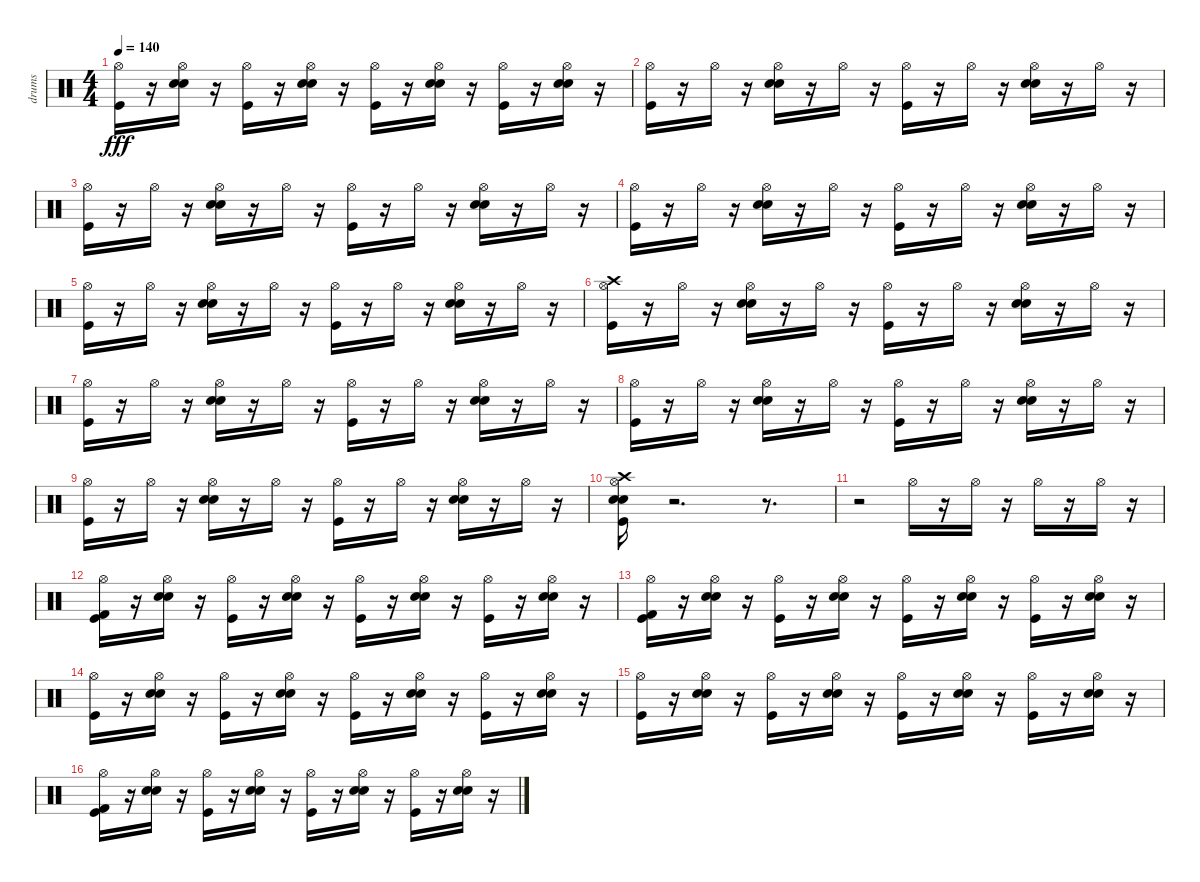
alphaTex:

\track ("drums" "drums") {instrument percussion}
\staff {score}
\articulation defaults
\ts (4 4)
\tempo 140
\clef neutral
\ks c
("Kick (hit)" "Hi-Hat (open)").16{dy fff} r.16 ("Snare (hit) 2" "Electric Snare (hit)" "Hi-Hat (open)").16 r.16 ("Hi-Hat (open)" "Kick (hit)").16 r.16 ("Hi-Hat (open)" "Snare (hit) 2" "Electric Snare (hit)").16 r.16 ("Hi-Hat (open)" "Kick (hit)").16 r.16 ("Hi-Hat (open)" "Snare (hit) 2" "Electric Snare (hit)").16 r.16 ("Hi-Hat (open)" "Kick (hit)").16 r.16 ("Hi-Hat (open)" "Snare (hit) 2" "Electric Snare (hit)").16 r.16 |
("Kick (hit)" "Hi-Hat (open)").16 r.16 "Hi-Hat (open)".16 r.16 ("Snare (hit) 2" "Electric Snare (hit)" "Hi-Hat (open)").16 r.16 "Hi-Hat (open)".16 r.16 ("Kick (hit)" "Hi-Hat (open)").16 r.16 "Hi-Hat (open)".16 r.16 ("Snare (hit) 2" "Electric Snare (hit)" "Hi-Hat (open)").16 r.16 "Hi-Hat (open)".16 r.16 |
("Hi-Hat (open)" "Kick (hit)").16 r.16 "Hi-Hat (open)".16 r.16 ("Snare (hit) 2" "Electric Snare (hit)" "Hi-Hat (open)").16 r.16 "Hi-Hat (open)".16 r.16 ("Kick (hit)" "Hi-Hat (open)").16 r.16 "Hi-Hat (open)".16 r.16 ("Snare (hit) 2" "Electric Snare (hit)" "Hi-Hat (open)").16 r.16 "Hi-Hat (open)".16 r.16 |
("Hi-Hat (open)" "Kick (hit)").16 r.16 "Hi-Hat (open)".16 r.16 ("Snare (hit) 2" "Electric Snare (hit)" "Hi-Hat (open)").16 r.16 "Hi-Hat (open)".16 r.16 ("Kick (hit)" "Hi-Hat (open)").16 r.16 "Hi-Hat (open)".16 r.16 ("Snare (hit) 2" "Electric Snare (hit)" "Hi-Hat (open)").16 r.16 "Hi-Hat (open)".16 r.16 |
("Hi-Hat (open)" "Kick (hit)").16 r.16 "Hi-Hat (open)".16 r.16 ("Snare (hit) 2" "Electric Snare (hit)" "Hi-Hat (open)").16 r.16 "Hi-Hat (open)".16 r.16 ("Kick (hit)" "Hi-Hat (open)").16 r.16 "Hi-Hat (open)".16 r.16 ("Snare (hit) 2" "Electric Snare (hit)" "Hi-Hat (open)").16 r.16 "Hi-Hat (open)".16 r.16 |
("Crash high (hit)" "Hi-Hat (open)" "Kick (hit)").16 r.16 "Hi-Hat (open)".16 r.16 ("Snare (hit) 2" "Electric Snare (hit)" "Hi-Hat (open)").16 r.16 "Hi-Hat (open)".16 r.16 ("Kick (hit)" "Hi-Hat (open)").16 r.16 "Hi-Hat (open)".16 r.16 ("Snare (hit) 2" "Electric Snare (hit)" "Hi-Hat (open)").16 r.16 "Hi-Hat (open)".16 r.16 |
("Hi-Hat (open)" "Kick (hit)").16 r.16 "Hi-Hat (open)".16 r.16 ("Snare (hit) 2" "Electric Snare (hit)" "Hi-Hat (open)").16 r.16 "Hi-Hat (open)".16 r.16 ("Kick (hit)" "Hi-Hat (open)").16 r.16 "Hi-Hat (open)".16 r.16 ("Snare (hit) 2" "Electric Snare (hit)" "Hi-Hat (open)").16 r.16 "Hi-Hat (open)".16 r.16 |
("Hi-Hat (open)" "Kick (hit)").16 r.16 "Hi-Hat (open)".16 r.16 ("Snare (hit) 2" "Electric Snare (hit)" "Hi-Hat (open)").16 r.16 "Hi-Hat (open)".16 r.16 ("Kick (hit)" "Hi-Hat (open)").16 r.16 "Hi-Hat (open)".16 r.16 ("Snare (hit) 2" "Electric Snare (hit)" "Hi-Hat (open)").16 r.16 "Hi-Hat (open)".16 r.16 |
("Kick (hit)" "Hi-Hat (open)").16 r.16 "Hi-Hat (open)".16 r.16 ("Snare (hit) 2" "Electric Snare (hit)" "Hi-Hat (open)").16 r.16 "Hi-Hat (open)".16 r.16 ("Kick (hit)" "Hi-Hat (open)").16 r.16 "Hi-Hat (open)".16 r.16 ("Snare (hit) 2" "Electric Snare (hit)" "Hi-Hat (open)").16 r.16 "Hi-Hat (open)".16 r.16 |
("Kick (hit)" "Electric Snare (hit)" "Snare (hit) 2" "Hi-Hat (open)" "Crash high (hit)").16 r.2{d} r.8{d} |
r.2 "Hi-Hat (open)".16 r.16 "Hi-Hat (open)".16 r.16 "Hi-Hat (open)".16 r.16 "Hi-Hat (open)".16 r.16 |
("Hi-Hat (open)" "Kick (hit)" "Kick (hit) 2").16 r.16 ("Hi-Hat (open)" "Snare (hit) 2" "Electric Snare (hit)").16 r.16 ("Hi-Hat (open)" "Kick (hit)").16 r.16 ("Hi-Hat (open)" "Snare (hit) 2" "Electric Snare (hit)").16 r.16 ("Hi-Hat (open)" "Kick (hit)").16 r.16 ("Hi-Hat (open)" "Snare (hit) 2" "Electric Snare (hit)").16 r.16 ("Hi-Hat (open)" "Kick (hit)").16 r.16 ("Hi-Hat (open)" "Snare (hit) 2" "Electric Snare (hit)").16 r.16 |
("Kick (hit) 2" "Kick (hit)" "Hi-Hat (open)").16 r.16 ("Hi-Hat (open)" "Snare (hit) 2" "Electric Snare (hit)").16 r.16 ("Hi-Hat (open)" "Kick (hit)").16 r.16 ("Hi-Hat (open)" "Snare (hit) 2" "Electric Snare (hit)").16 r.16 ("Hi-Hat (open)" "Kick (hit)").16 r.16 ("Hi-Hat (open)" "Snare (hit) 2" "Electric Snare (hit)").16 r.16 ("Hi-Hat (open)" "Kick (hit)").16 r.16 ("Hi-Hat (open)" "Snare (hit) 2" "Electric Snare (hit)").16 r.16 |
("Hi-Hat (open)" "Kick (hit)").16 r.16 ("Hi-Hat (open)" "Snare (hit) 2" "Electric Snare (hit)").16 r.16 ("Hi-Hat (open)" "Kick (hit)").16 r.16 ("Hi-Hat (open)" "Snare (hit) 2" "Electric Snare (hit)").16 r.16 ("Hi-Hat (open)" "Kick (hit)").16 r.16 ("Hi-Hat (open)" "Snare (hit) 2" "Electric Snare (hit)").16 r.16 ("Hi-Hat (open)" "Kick (hit)").16 r.16 ("Hi-Hat (open)" "Snare (hit) 2" "Electric Snare (hit)").16 r.16 |
("Kick (hit)" "Hi-Hat (open)").16 r.16 ("Hi-Hat (open)" "Snare (hit) 2" "Electric Snare (hit)").16 r.16 ("Hi-Hat (open)" "Kick (hit)").16 r.16 ("Hi-Hat (open)" "Snare (hit) 2" "Electric Snare (hit)").16 r.16 ("Hi-Hat (open)" "Kick (hit)").16 r.16 ("Hi-Hat (open)" "Snare (hit) 2" "Electric Snare (hit)").16 r.16 ("Hi-Hat (open)" "Kick (hit)").16 r.16 ("Hi-Hat (open)" "Snare (hit) 2" "Electric Snare (hit)").16 r.16 |
("Kick (hit) 2" "Kick (hit)" "Hi-Hat (open)").16 r.16 ("Hi-Hat (open)" "Snare (hit) 2" "Electric Snare (hit)").16 r.16 ("Hi-Hat (open)" "Kick (hit)").16 r.16 ("Hi-Hat (open)" "Snare (hit) 2" "Electric Snare (hit)").16 r.16 ("Hi-Hat (open)" "Kick (hit)").16 r.16 ("Hi-Hat (open)" "Snare (hit) 2" "Electric Snare (hit)").16 r.16 ("Hi-Hat (open)" "Kick (hit)").16 r.16 ("Hi-Hat (open)" "Snare (hit) 2" "Electric Snare (hit)").16 r.16
